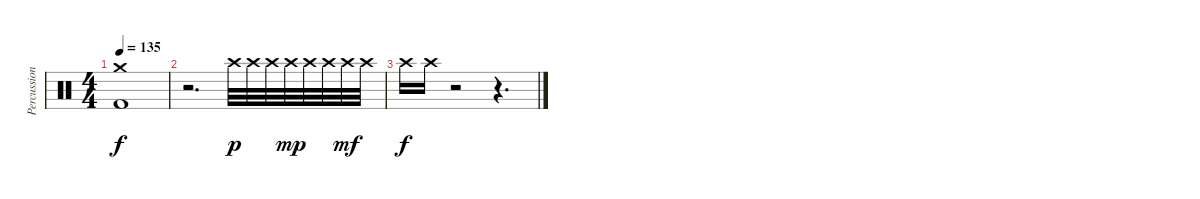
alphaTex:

\track ("Percussion" "Percussion") {instrument percussion}
\staff {score}
\articulation defaults
\ts (4 4)
\tempo 135
\clef neutral
\ks c
("Crash medium (hit)" "Kick (hit) 2").1{dy f} |
r.2{d} "Crash high (hit)".32{dy p} "Crash high (hit)".32 "Crash high (hit)".32 "Crash high (hit)".32{dy mp} "Crash high (hit)".32 "Crash high (hit)".32 "Crash high (hit)".32{dy mf} "Crash high (hit)".32 |
"Crash high (hit)".16{dy f} "Crash high (hit)".16 r.2 r.4{d}
